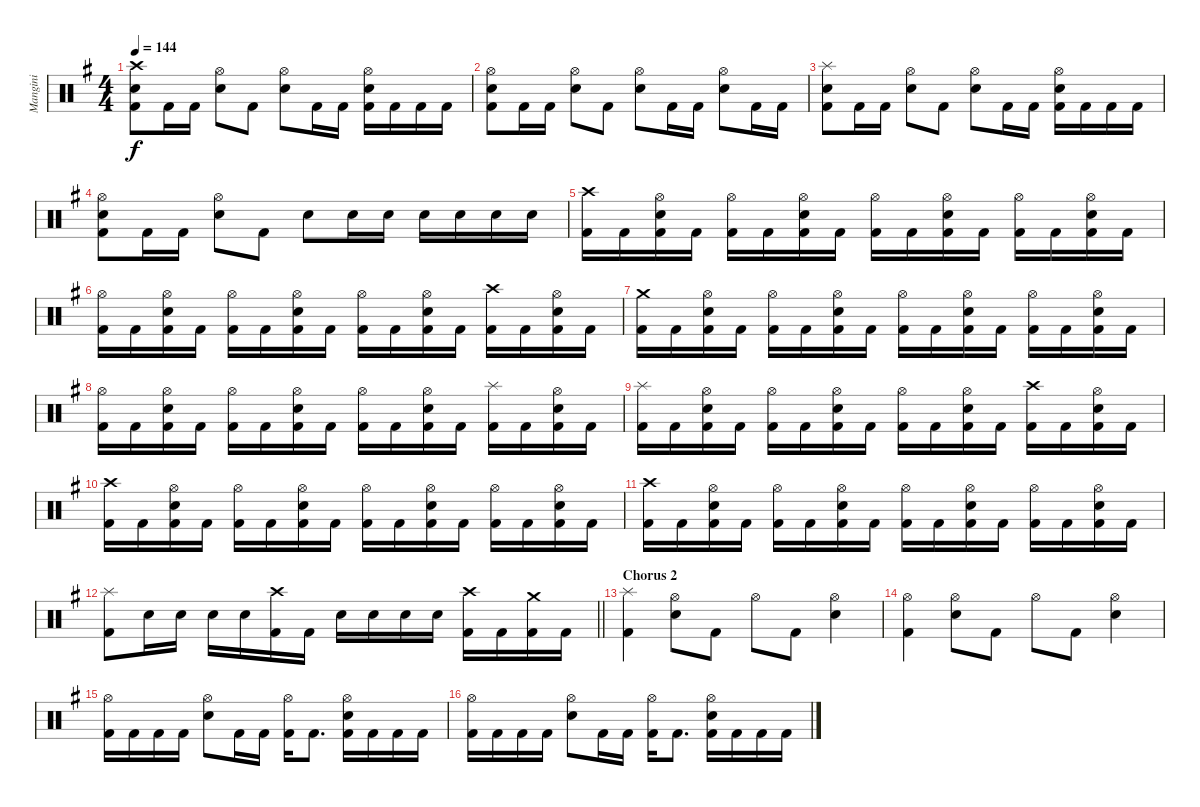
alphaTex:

\track ("Mangini" "Mangini") {instrument percussion}
\staff {score}
\articulation defaults
\ts (4 4)
\tempo 144
\clef neutral
\ks eminor
("Crash high (hit)" "Snare (hit) 2" "Kick (hit) 2").8{dy f} "Kick (hit) 2".16 "Kick (hit) 2".16 ("Hi-Hat (open)" "Snare (hit) 2").8 "Kick (hit) 2".8 ("Hi-Hat (open)" "Snare (hit) 2").8 "Kick (hit) 2".16 "Kick (hit) 2".16 ("Hi-Hat (open)" "Snare (hit) 2" "Kick (hit) 2").16 "Kick (hit) 2".16 "Kick (hit) 2".16 "Kick (hit) 2".16 |
("Hi-Hat (open)" "Snare (hit) 2" "Kick (hit) 2").8 "Kick (hit) 2".16 "Kick (hit) 2".16 ("Hi-Hat (open)" "Snare (hit) 2").8 "Kick (hit) 2".8 ("Hi-Hat (open)" "Snare (hit) 2").8 "Kick (hit) 2".16 "Kick (hit) 2".16 ("Hi-Hat (open)" "Snare (hit) 2").8 "Kick (hit) 2".16 "Kick (hit) 2".16 |
("Splash (hit)" "Snare (hit) 2" "Kick (hit) 2").8 "Kick (hit) 2".16 "Kick (hit) 2".16 ("Hi-Hat (open)" "Snare (hit) 2").8 "Kick (hit) 2".8 ("Hi-Hat (open)" "Snare (hit) 2").8 "Kick (hit) 2".16 "Kick (hit) 2".16 ("Hi-Hat (open)" "Snare (hit) 2" "Kick (hit) 2").16 "Kick (hit) 2".16 "Kick (hit) 2".16 "Kick (hit) 2".16 |
("Hi-Hat (open)" "Snare (hit) 2" "Kick (hit) 2").8 "Kick (hit) 2".16 "Kick (hit) 2".16 ("Hi-Hat (open)" "Snare (hit) 2").8 "Kick (hit) 2".8 "Snare (hit) 2".8 "Snare (hit) 2".16 "Snare (hit) 2".16 "Snare (hit) 2".16 "Snare (hit) 2".16 "Snare (hit) 2".16 "Snare (hit) 2".16 |
("Crash high (hit)" "Kick (hit) 2").16 "Kick (hit) 2".16 ("Hi-Hat (open)" "Snare (hit) 2" "Kick (hit) 2").16 "Kick (hit) 2".16 ("Hi-Hat (open)" "Kick (hit) 2").16 "Kick (hit) 2".16 ("Hi-Hat (open)" "Snare (hit) 2" "Kick (hit) 2").16 "Kick (hit) 2".16 ("Hi-Hat (open)" "Kick (hit) 2").16 "Kick (hit) 2".16 ("Hi-Hat (open)" "Snare (hit) 2" "Kick (hit) 2").16 "Kick (hit) 2".16 ("Hi-Hat (open)" "Kick (hit) 2").16 "Kick (hit) 2".16 ("Hi-Hat (open)" "Snare (hit) 2" "Kick (hit) 2").16 "Kick (hit) 2".16 |
("Hi-Hat (open)" "Kick (hit) 2").16 "Kick (hit) 2".16 ("Hi-Hat (open)" "Snare (hit) 2" "Kick (hit) 2").16 "Kick (hit) 2".16 ("Hi-Hat (open)" "Kick (hit) 2").16 "Kick (hit) 2".16 ("Hi-Hat (open)" "Snare (hit) 2" "Kick (hit) 2").16 "Kick (hit) 2".16 ("Hi-Hat (open)" "Kick (hit) 2").16 "Kick (hit) 2".16 ("Hi-Hat (open)" "Snare (hit) 2" "Kick (hit) 2").16 "Kick (hit) 2".16 ("Crash high (hit)" "Kick (hit) 2").16 "Kick (hit) 2".16 ("Hi-Hat (open)" "Snare (hit) 2" "Kick (hit) 2").16 "Kick (hit) 2".16 |
("Crash medium (hit)" "Kick (hit) 2").16 "Kick (hit) 2".16 ("Hi-Hat (open)" "Snare (hit) 2" "Kick (hit) 2").16 "Kick (hit) 2".16 ("Hi-Hat (open)" "Kick (hit) 2").16 "Kick (hit) 2".16 ("Hi-Hat (open)" "Snare (hit) 2" "Kick (hit) 2").16 "Kick (hit) 2".16 ("Hi-Hat (open)" "Kick (hit) 2").16 "Kick (hit) 2".16 ("Hi-Hat (open)" "Snare (hit) 2" "Kick (hit) 2").16 "Kick (hit) 2".16 ("Hi-Hat (open)" "Kick (hit) 2").16 "Kick (hit) 2".16 ("Hi-Hat (open)" "Snare (hit) 2" "Kick (hit) 2").16 "Kick (hit) 2".16 |
("Hi-Hat (open)" "Kick (hit) 2").16 "Kick (hit) 2".16 ("Hi-Hat (open)" "Snare (hit) 2" "Kick (hit) 2").16 "Kick (hit) 2".16 ("Hi-Hat (open)" "Kick (hit) 2").16 "Kick (hit) 2".16 ("Hi-Hat (open)" "Snare (hit) 2" "Kick (hit) 2").16 "Kick (hit) 2".16 ("Hi-Hat (open)" "Kick (hit) 2").16 "Kick (hit) 2".16 ("Hi-Hat (open)" "Snare (hit) 2" "Kick (hit) 2").16 "Kick (hit) 2".16 ("Splash (hit)" "Kick (hit) 2").16 "Kick (hit) 2".16 ("Hi-Hat (open)" "Snare (hit) 2" "Kick (hit) 2").16 "Kick (hit) 2".16 |
("Splash (hit)" "Kick (hit) 2").16 "Kick (hit) 2".16 ("Hi-Hat (open)" "Snare (hit) 2" "Kick (hit) 2").16 "Kick (hit) 2".16 ("Hi-Hat (open)" "Kick (hit) 2").16 "Kick (hit) 2".16 ("Hi-Hat (open)" "Snare (hit) 2" "Kick (hit) 2").16 "Kick (hit) 2".16 ("Hi-Hat (open)" "Kick (hit) 2").16 "Kick (hit) 2".16 ("Hi-Hat (open)" "Snare (hit) 2" "Kick (hit) 2").16 "Kick (hit) 2".16 ("Crash high (hit)" "Kick (hit) 2").16 "Kick (hit) 2".16 ("Hi-Hat (open)" "Snare (hit) 2" "Kick (hit) 2").16 "Kick (hit) 2".16 |
("Crash high (hit)" "Kick (hit) 2").16 "Kick (hit) 2".16 ("Hi-Hat (open)" "Snare (hit) 2" "Kick (hit) 2").16 "Kick (hit) 2".16 ("Hi-Hat (open)" "Kick (hit) 2").16 "Kick (hit) 2".16 ("Hi-Hat (open)" "Snare (hit) 2" "Kick (hit) 2").16 "Kick (hit) 2".16 ("Hi-Hat (open)" "Kick (hit) 2").16 "Kick (hit) 2".16 ("Hi-Hat (open)" "Snare (hit) 2" "Kick (hit) 2").16 "Kick (hit) 2".16 ("Hi-Hat (open)" "Kick (hit) 2").16 "Kick (hit) 2".16 ("Hi-Hat (open)" "Snare (hit) 2" "Kick (hit) 2").16 "Kick (hit) 2".16 |
("Crash high (hit)" "Kick (hit) 2").16 "Kick (hit) 2".16 ("Hi-Hat (open)" "Snare (hit) 2" "Kick (hit) 2").16 "Kick (hit) 2".16 ("Hi-Hat (open)" "Kick (hit) 2").16 "Kick (hit) 2".16 ("Hi-Hat (open)" "Snare (hit) 2" "Kick (hit) 2").16 "Kick (hit) 2".16 ("Hi-Hat (open)" "Kick (hit) 2").16 "Kick (hit) 2".16 ("Hi-Hat (open)" "Snare (hit) 2" "Kick (hit) 2").16 "Kick (hit) 2".16 ("Hi-Hat (open)" "Kick (hit) 2").16 "Kick (hit) 2".16 ("Hi-Hat (open)" "Snare (hit) 2" "Kick (hit) 2").16 "Kick (hit) 2".16 |
\barLineRight lightlight
("Splash (hit)" "Kick (hit) 2").8 "Snare (hit) 2".16 "Snare (hit) 2".16 "Snare (hit) 2".16 "Snare (hit) 2".16 ("Crash high (hit)" "Kick (hit) 2").16 "Kick (hit) 2".16 "Snare (hit) 2".16 "Snare (hit) 2".16 "Snare (hit) 2".16 "Snare (hit) 2".16 ("Crash high (hit)" "Kick (hit) 2").16 "Kick (hit) 2".16 ("Crash medium (hit)" "Kick (hit) 2").16 "Kick (hit) 2".16 |
\section ("" "Chorus 2")
("Splash (hit)" "Kick (hit) 2").4 ("Hi-Hat (open)" "Snare (hit) 2").8 "Kick (hit) 2".8 "Hi-Hat (open)".8 "Kick (hit) 2".8 ("Hi-Hat (open)" "Snare (hit) 2").4 |
("Hi-Hat (open)" "Kick (hit) 2").4 ("Hi-Hat (open)" "Snare (hit) 2").8 "Kick (hit) 2".8 "Hi-Hat (open)".8 "Kick (hit) 2".8 ("Hi-Hat (open)" "Snare (hit) 2").4 |
("Hi-Hat (open)" "Kick (hit) 2").16 "Kick (hit) 2".16 "Kick (hit) 2".16 "Kick (hit) 2".16 ("Hi-Hat (open)" "Snare (hit) 2").8 "Kick (hit) 2".16 "Kick (hit) 2".16 ("Hi-Hat (open)" "Kick (hit) 2").16 "Kick (hit) 2".8{d} ("Hi-Hat (open)" "Snare (hit) 2" "Kick (hit) 2").16 "Kick (hit) 2".16 "Kick (hit) 2".16 "Kick (hit) 2".16 |
("Hi-Hat (open)" "Kick (hit) 2").16 "Kick (hit) 2".16 "Kick (hit) 2".16 "Kick (hit) 2".16 ("Hi-Hat (open)" "Snare (hit) 2").8 "Kick (hit) 2".16 "Kick (hit) 2".16 ("Hi-Hat (open)" "Kick (hit) 2").16 "Kick (hit) 2".8{d} ("Hi-Hat (open)" "Snare (hit) 2" "Kick (hit) 2").16 "Kick (hit) 2".16 "Kick (hit) 2".16 "Kick (hit) 2".16
